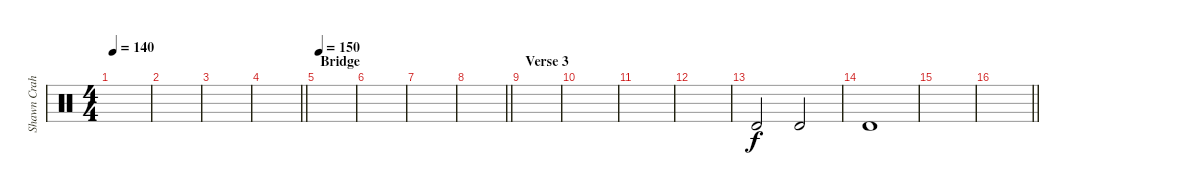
\track ("Shawn Crahan" "Shawn Crah") {instrument percussion}
\staff {score}
\articulation defaults
\ts (4 4)
\tempo 140
\clef neutral
\ks c
|
|
|
\barLineRight lightlight
|
\section ("" "Bridge")
\tempo 150
|
|
|
\barLineRight lightlight
|
\section ("" "Verse 3")
|
|
|
|
"Timbale high (hit)".2 "Timbale high (hit)".2 |
"Timbale high (hit)".1 |
|
\barLineRight lightlight
